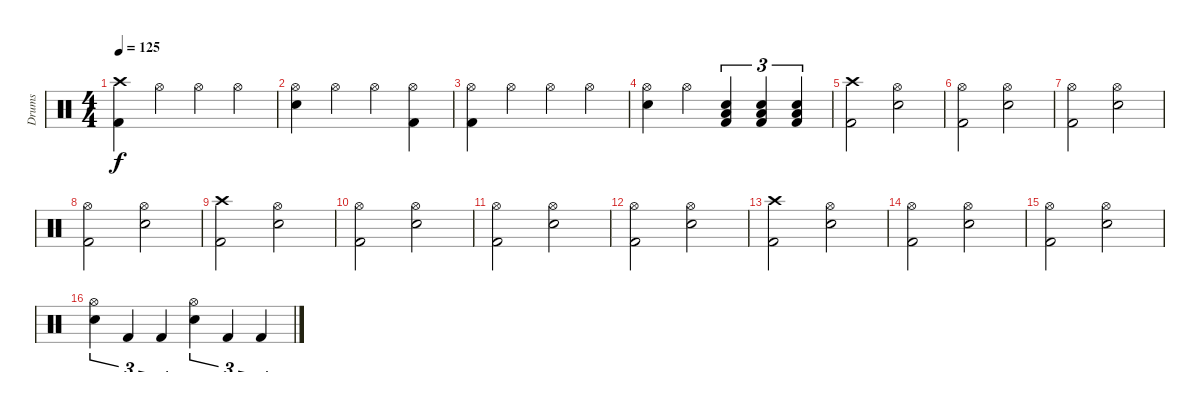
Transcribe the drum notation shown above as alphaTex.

\track ("Drums" "Drums") {instrument percussion}
\staff {score}
\articulation defaults
\ts (4 4)
\tempo 125
\clef neutral
\ks c
("Crash high (hit)" "Kick (hit) 2").4{dy f} "Hi-Hat (open)".4 "Hi-Hat (open)".4 "Hi-Hat (open)".4 |
("Hi-Hat (open)" "Snare (hit) 2").4 "Hi-Hat (open)".4 "Hi-Hat (open)".4 ("Hi-Hat (open)" "Kick (hit) 2").4 |
("Hi-Hat (open)" "Kick (hit) 2").4 "Hi-Hat (open)".4 "Hi-Hat (open)".4 "Hi-Hat (open)".4 |
("Hi-Hat (open)" "Snare (hit) 2").4 "Hi-Hat (open)".4 ("Low Floor Tom (hit)" "Snare (hit) 2" "Kick (hit) 2").4{tu (3 2)} ("Low Floor Tom (hit)" "Snare (hit) 2" "Kick (hit) 2").4{tu (3 2)} ("Low Floor Tom (hit)" "Snare (hit) 2" "Kick (hit) 2").4{tu (3 2)} |
("Crash high (hit)" "Kick (hit) 2").2 ("Hi-Hat (open)" "Snare (hit) 2").2 |
("Hi-Hat (open)" "Kick (hit) 2").2 ("Hi-Hat (open)" "Snare (hit) 2").2 |
("Hi-Hat (open)" "Kick (hit) 2").2 ("Hi-Hat (open)" "Snare (hit) 2").2 |
("Hi-Hat (open)" "Kick (hit) 2").2 ("Hi-Hat (open)" "Snare (hit) 2").2 |
("Crash high (hit)" "Kick (hit) 2").2 ("Hi-Hat (open)" "Snare (hit) 2").2 |
("Hi-Hat (open)" "Kick (hit) 2").2 ("Hi-Hat (open)" "Snare (hit) 2").2 |
("Hi-Hat (open)" "Kick (hit) 2").2 ("Hi-Hat (open)" "Snare (hit) 2").2 |
("Hi-Hat (open)" "Kick (hit) 2").2 ("Hi-Hat (open)" "Snare (hit) 2").2 |
("Crash high (hit)" "Kick (hit) 2").2 ("Hi-Hat (open)" "Snare (hit) 2").2 |
("Hi-Hat (open)" "Kick (hit) 2").2 ("Hi-Hat (open)" "Snare (hit) 2").2 |
("Hi-Hat (open)" "Kick (hit) 2").2 ("Hi-Hat (open)" "Snare (hit) 2").2 |
("Hi-Hat (open)" "Snare (hit) 2").4{tu (3 2)} "Kick (hit) 2".4{tu (3 2)} "Kick (hit) 2".4{tu (3 2)} ("Hi-Hat (open)" "Snare (hit) 2").4{tu (3 2)} "Kick (hit) 2".4{tu (3 2)} "Kick (hit) 2".4{tu (3 2)}
